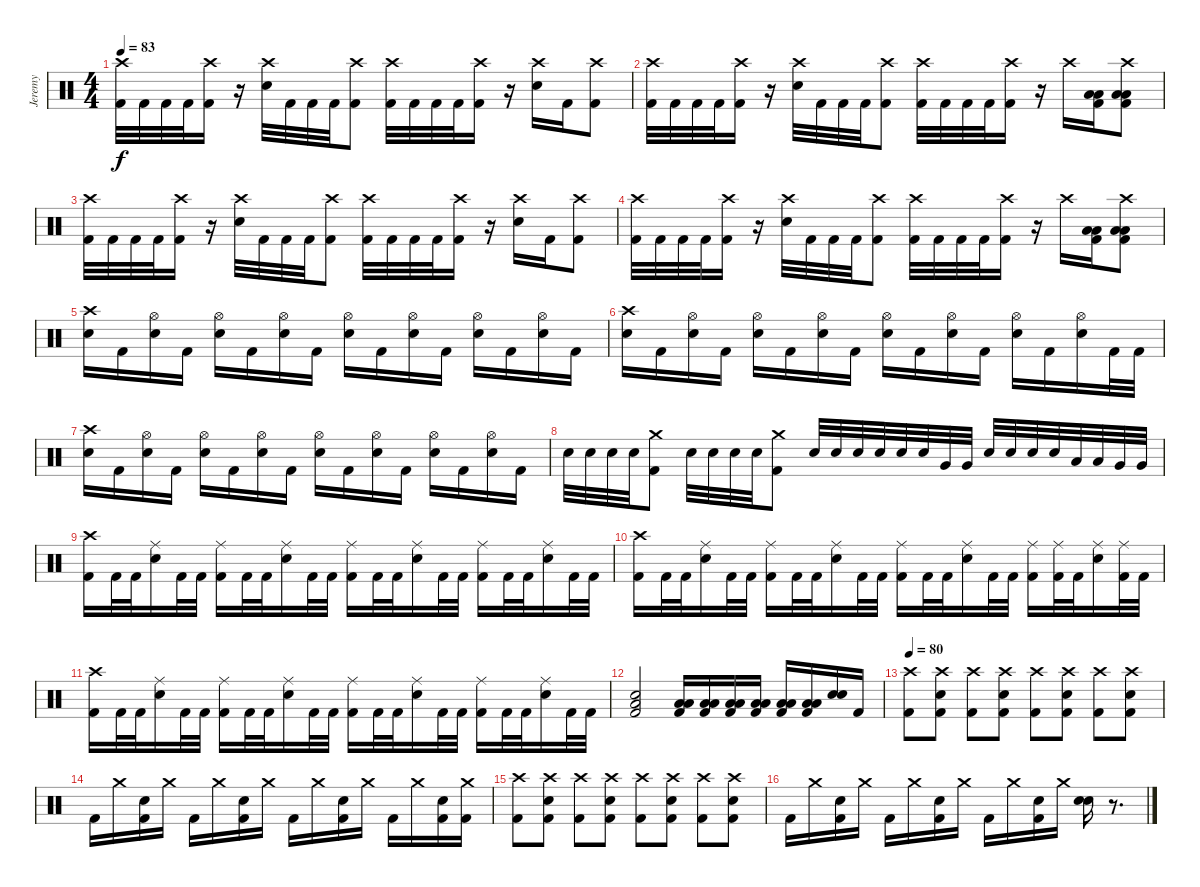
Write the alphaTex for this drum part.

\track ("Jeremy" "Jeremy") {instrument percussion}
\staff {score}
\articulation defaults
\ts (4 4)
\tempo 83
\clef neutral
\ks c
("Crash high (hit)" "Kick (hit) 2").32{dy f} "Kick (hit) 2".32 "Kick (hit) 2".32 "Kick (hit) 2".32 ("Crash high (hit)" "Kick (hit) 2").16 r.16 ("Crash high (hit)" "Electric Snare (hit)").32 "Kick (hit) 2".32 "Kick (hit) 2".32 "Kick (hit) 2".32 ("Crash high (hit)" "Kick (hit) 2").8 ("Crash high (hit)" "Kick (hit) 2").32 "Kick (hit) 2".32 "Kick (hit) 2".32 "Kick (hit) 2".32 ("Crash high (hit)" "Kick (hit) 2").16 r.16 ("Crash high (hit)" "Electric Snare (hit)").16 "Kick (hit) 2".16 ("Crash high (hit)" "Kick (hit) 2").8 |
("Crash high (hit)" "Kick (hit) 2").32 "Kick (hit) 2".32 "Kick (hit) 2".32 "Kick (hit) 2".32 ("Crash high (hit)" "Kick (hit) 2").16 r.16 ("Crash high (hit)" "Electric Snare (hit)").32 "Kick (hit) 2".32 "Kick (hit) 2".32 "Kick (hit) 2".32 ("Crash high (hit)" "Kick (hit) 2").8 ("Crash high (hit)" "Kick (hit) 2").32 "Kick (hit) 2".32 "Kick (hit) 2".32 "Kick (hit) 2".32 ("Crash high (hit)" "Kick (hit) 2").16 r.16 "Crash high (hit)".16 ("Low Tom (hit)" "Low Floor Tom (hit)" "Kick (hit) 2").16 ("Crash high (hit)" "Low Tom (hit)" "Low Floor Tom (hit)" "Kick (hit) 2").8 |
("Crash high (hit)" "Kick (hit) 2").32 "Kick (hit) 2".32 "Kick (hit) 2".32 "Kick (hit) 2".32 ("Crash high (hit)" "Kick (hit) 2").16 r.16 ("Crash high (hit)" "Electric Snare (hit)").32 "Kick (hit) 2".32 "Kick (hit) 2".32 "Kick (hit) 2".32 ("Crash high (hit)" "Kick (hit) 2").8 ("Crash high (hit)" "Kick (hit) 2").32 "Kick (hit) 2".32 "Kick (hit) 2".32 "Kick (hit) 2".32 ("Crash high (hit)" "Kick (hit) 2").16 r.16 ("Crash high (hit)" "Electric Snare (hit)").16 "Kick (hit) 2".16 ("Crash high (hit)" "Kick (hit) 2").8 |
("Crash high (hit)" "Kick (hit) 2").32 "Kick (hit) 2".32 "Kick (hit) 2".32 "Kick (hit) 2".32 ("Crash high (hit)" "Kick (hit) 2").16 r.16 ("Crash high (hit)" "Electric Snare (hit)").32 "Kick (hit) 2".32 "Kick (hit) 2".32 "Kick (hit) 2".32 ("Crash high (hit)" "Kick (hit) 2").8 ("Crash high (hit)" "Kick (hit) 2").32 "Kick (hit) 2".32 "Kick (hit) 2".32 "Kick (hit) 2".32 ("Crash high (hit)" "Kick (hit) 2").16 r.16 "Crash high (hit)".16 ("Low Tom (hit)" "Low Floor Tom (hit)" "Kick (hit) 2").16 ("Crash high (hit)" "Low Tom (hit)" "Low Floor Tom (hit)" "Kick (hit) 2").8 |
("Crash high (hit)" "Electric Snare (hit)").16 "Kick (hit) 2".16 ("Hi-Hat (open)" "Electric Snare (hit)").16 "Kick (hit) 2".16 ("Hi-Hat (open)" "Electric Snare (hit)").16 "Kick (hit) 2".16 ("Hi-Hat (open)" "Electric Snare (hit)").16 "Kick (hit) 2".16 ("Hi-Hat (open)" "Electric Snare (hit)").16 "Kick (hit) 2".16 ("Hi-Hat (open)" "Electric Snare (hit)").16 "Kick (hit) 2".16 ("Hi-Hat (open)" "Electric Snare (hit)").16 "Kick (hit) 2".16 ("Hi-Hat (open)" "Electric Snare (hit)").16 "Kick (hit) 2".16 |
("Crash high (hit)" "Electric Snare (hit)").16 "Kick (hit) 2".16 ("Hi-Hat (open)" "Electric Snare (hit)").16 "Kick (hit) 2".16 ("Hi-Hat (open)" "Electric Snare (hit)").16 "Kick (hit) 2".16 ("Hi-Hat (open)" "Electric Snare (hit)").16 "Kick (hit) 2".16 ("Hi-Hat (open)" "Electric Snare (hit)").16 "Kick (hit) 2".16 ("Hi-Hat (open)" "Electric Snare (hit)").16 "Kick (hit) 2".16 ("Hi-Hat (open)" "Electric Snare (hit)").16 "Kick (hit) 2".16 ("Hi-Hat (open)" "Electric Snare (hit)").16 "Kick (hit) 2".32 "Kick (hit) 2".32 |
("Crash high (hit)" "Electric Snare (hit)").16 "Kick (hit) 2".16 ("Hi-Hat (open)" "Electric Snare (hit)").16 "Kick (hit) 2".16 ("Hi-Hat (open)" "Electric Snare (hit)").16 "Kick (hit) 2".16 ("Hi-Hat (open)" "Electric Snare (hit)").16 "Kick (hit) 2".16 ("Hi-Hat (open)" "Electric Snare (hit)").16 "Kick (hit) 2".16 ("Hi-Hat (open)" "Electric Snare (hit)").16 "Kick (hit) 2".16 ("Hi-Hat (open)" "Electric Snare (hit)").16 "Kick (hit) 2".16 ("Hi-Hat (open)" "Electric Snare (hit)").16 "Kick (hit) 2".16 |
"Electric Snare (hit)".32 "Electric Snare (hit)".32 "Electric Snare (hit)".32 "Electric Snare (hit)".32 ("Crash medium (hit)" "Kick (hit) 2").8 "Electric Snare (hit)".32 "Electric Snare (hit)".32 "Electric Snare (hit)".32 "Electric Snare (hit)".32 ("Crash medium (hit)" "Kick (hit) 2").8 "Electric Snare (hit)".32 "Electric Snare (hit)".32 "Electric Snare (hit)".32 "Electric Snare (hit)".32 "Electric Snare (hit)".32 "Electric Snare (hit)".32 "Very Low Tom (hit)".32 "Very Low Tom (hit)".32 "Electric Snare (hit)".32 "Electric Snare (hit)".32 "Electric Snare (hit)".32 "Electric Snare (hit)".32 "Low Tom (hit)".32 "Low Tom (hit)".32 "Very Low Tom (hit)".32 "Very Low Tom (hit)".32 |
("Crash high (hit)" "Kick (hit) 2").16 "Kick (hit) 2".32 "Kick (hit) 2".32 ("Ride (middle)" "Electric Snare (hit)").16 "Kick (hit) 2".32 "Kick (hit) 2".32 ("Ride (middle)" "Kick (hit) 2").16 "Kick (hit) 2".32 "Kick (hit) 2".32 ("Ride (middle)" "Electric Snare (hit)").16 "Kick (hit) 2".32 "Kick (hit) 2".32 ("Ride (middle)" "Kick (hit) 2").16 "Kick (hit) 2".32 "Kick (hit) 2".32 ("Ride (middle)" "Electric Snare (hit)").16 "Kick (hit) 2".32 "Kick (hit) 2".32 ("Ride (middle)" "Kick (hit) 2").16 "Kick (hit) 2".32 "Kick (hit) 2".32 ("Ride (middle)" "Electric Snare (hit)").16 "Kick (hit) 2".32 "Kick (hit) 2".32 |
("Crash high (hit)" "Kick (hit) 2").16 "Kick (hit) 2".32 "Kick (hit) 2".32 ("Ride (middle)" "Electric Snare (hit)").16 "Kick (hit) 2".32 "Kick (hit) 2".32 ("Ride (middle)" "Kick (hit) 2").16 "Kick (hit) 2".32 "Kick (hit) 2".32 ("Ride (middle)" "Electric Snare (hit)").16 "Kick (hit) 2".32 "Kick (hit) 2".32 ("Ride (middle)" "Kick (hit) 2").16 "Kick (hit) 2".32 "Kick (hit) 2".32 ("Ride (middle)" "Electric Snare (hit)").16 "Kick (hit) 2".32 "Kick (hit) 2".32 ("Ride (middle)" "Kick (hit) 2").16 ("Ride (middle)" "Kick (hit) 2").32 "Kick (hit) 2".32 ("Ride (middle)" "Electric Snare (hit)").16 ("Ride (middle)" "Kick (hit) 2").32 "Kick (hit) 2".32 |
("Crash high (hit)" "Kick (hit) 2").16 "Kick (hit) 2".32 "Kick (hit) 2".32 ("Ride (middle)" "Electric Snare (hit)").16 "Kick (hit) 2".32 "Kick (hit) 2".32 ("Ride (middle)" "Kick (hit) 2").16 "Kick (hit) 2".32 "Kick (hit) 2".32 ("Ride (middle)" "Electric Snare (hit)").16 "Kick (hit) 2".32 "Kick (hit) 2".32 ("Ride (middle)" "Kick (hit) 2").16 "Kick (hit) 2".32 "Kick (hit) 2".32 ("Ride (middle)" "Electric Snare (hit)").16 "Kick (hit) 2".32 "Kick (hit) 2".32 ("Ride (middle)" "Kick (hit) 2").16 "Kick (hit) 2".32 "Kick (hit) 2".32 ("Ride (middle)" "Electric Snare (hit)").16 "Kick (hit) 2".32 "Kick (hit) 2".32 |
("Low Floor Tom (hit)" "Electric Snare (hit)" "Kick (hit) 2").2 ("Low Tom (hit)" "Low Floor Tom (hit)" "Kick (hit) 2").16 ("Low Tom (hit)" "Low Floor Tom (hit)" "Kick (hit) 2").16 ("Low Tom (hit)" "Low Floor Tom (hit)" "Kick (hit) 2").16 ("Low Tom (hit)" "Low Floor Tom (hit)" "Kick (hit) 2").16 ("Low Tom (hit)" "Low Floor Tom (hit)" "Kick (hit) 2").16 ("Low Tom (hit)" "Low Floor Tom (hit)" "Kick (hit) 2").16 ("Electric Snare (hit)" "Electric Snare (hit)").16 "Kick (hit) 2".16 |
\tempo 80
("Crash high (hit)" "Kick (hit) 2").8 ("Crash high (hit)" "Electric Snare (hit)" "Kick (hit) 2").8 ("Crash high (hit)" "Kick (hit) 2").8 ("Crash high (hit)" "Electric Snare (hit)" "Kick (hit) 2").8 ("Crash high (hit)" "Kick (hit) 2").8 ("Crash high (hit)" "Electric Snare (hit)" "Kick (hit) 2").8 ("Crash high (hit)" "Kick (hit) 2").8 ("Crash high (hit)" "Electric Snare (hit)" "Kick (hit) 2").8 |
"Kick (hit) 2".16 "Crash medium (hit)".16 ("Electric Snare (hit)" "Kick (hit) 2").16 "Crash medium (hit)".16 "Kick (hit) 2".16 "Crash medium (hit)".16 ("Electric Snare (hit)" "Kick (hit) 2").16 "Crash medium (hit)".16 "Kick (hit) 2".16 "Crash medium (hit)".16 ("Electric Snare (hit)" "Kick (hit) 2").16 "Crash medium (hit)".16 "Kick (hit) 2".16 "Crash medium (hit)".16 ("Electric Snare (hit)" "Kick (hit) 2").16 ("Crash medium (hit)" "Kick (hit) 2").16 |
("Crash high (hit)" "Kick (hit) 2").8 ("Crash high (hit)" "Electric Snare (hit)" "Kick (hit) 2").8 ("Crash high (hit)" "Kick (hit) 2").8 ("Crash high (hit)" "Electric Snare (hit)" "Kick (hit) 2").8 ("Crash high (hit)" "Kick (hit) 2").8 ("Crash high (hit)" "Electric Snare (hit)" "Kick (hit) 2").8 ("Crash high (hit)" "Kick (hit) 2").8 ("Crash high (hit)" "Electric Snare (hit)" "Kick (hit) 2").8 |
"Kick (hit) 2".16 "Crash medium (hit)".16 ("Electric Snare (hit)" "Kick (hit) 2").16 "Crash medium (hit)".16 "Kick (hit) 2".16 "Crash medium (hit)".16 ("Electric Snare (hit)" "Kick (hit) 2").16 "Crash medium (hit)".16 "Kick (hit) 2".16 "Crash medium (hit)".16 ("Electric Snare (hit)" "Kick (hit) 2").16 "Crash medium (hit)".16 ("Electric Snare (hit)" "Electric Snare (hit)").16 r.8{d}
